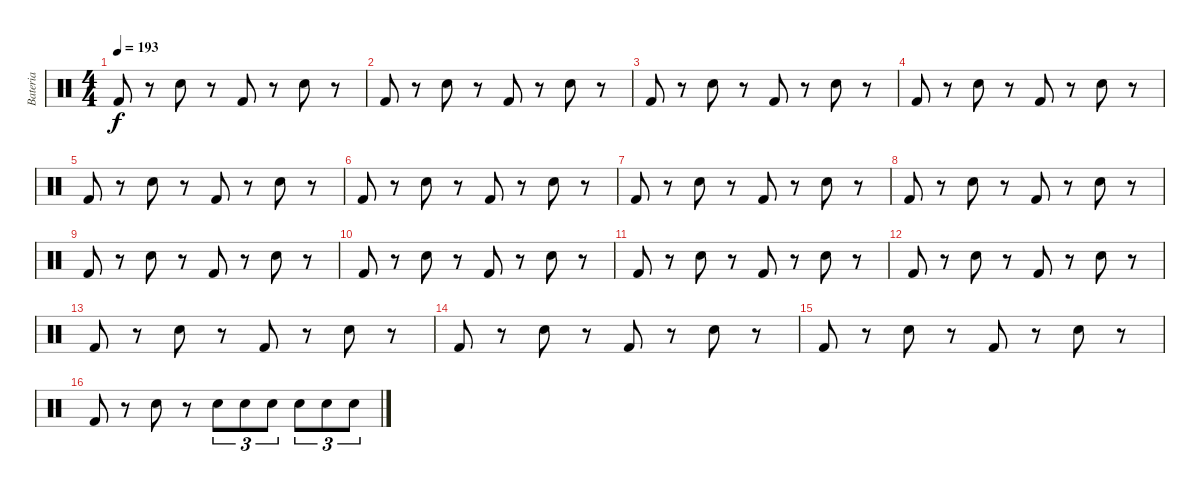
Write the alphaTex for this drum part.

\track ("Bateria" "Bateria") {instrument percussion}
\staff {score}
\articulation defaults
\ts (4 4)
\tempo 193
\clef neutral
\ks c "Kick (hit) 2".8{dy f}
r.8 "Electric Snare (hit)".8 r.8 "Kick (hit) 2".8 r.8 "Electric Snare (hit)".8 r.8 |
"Kick (hit) 2".8 r.8 "Electric Snare (hit)".8 r.8 "Kick (hit) 2".8 r.8 "Electric Snare (hit)".8 r.8 |
"Kick (hit) 2".8 r.8 "Electric Snare (hit)".8 r.8 "Kick (hit) 2".8 r.8 "Electric Snare (hit)".8 r.8 |
"Kick (hit) 2".8 r.8 "Electric Snare (hit)".8 r.8 "Kick (hit) 2".8 r.8 "Electric Snare (hit)".8 r.8 |
"Kick (hit) 2".8 r.8 "Electric Snare (hit)".8 r.8 "Kick (hit) 2".8 r.8 "Electric Snare (hit)".8 r.8 |
"Kick (hit) 2".8 r.8 "Electric Snare (hit)".8 r.8 "Kick (hit) 2".8 r.8 "Electric Snare (hit)".8 r.8 |
"Kick (hit) 2".8 r.8 "Electric Snare (hit)".8 r.8 "Kick (hit) 2".8 r.8 "Electric Snare (hit)".8 r.8 |
"Kick (hit) 2".8 r.8 "Electric Snare (hit)".8 r.8 "Kick (hit) 2".8 r.8 "Electric Snare (hit)".8 r.8 |
"Kick (hit) 2".8 r.8 "Electric Snare (hit)".8 r.8 "Kick (hit) 2".8 r.8 "Electric Snare (hit)".8 r.8 |
"Kick (hit) 2".8 r.8 "Electric Snare (hit)".8 r.8 "Kick (hit) 2".8 r.8 "Electric Snare (hit)".8 r.8 |
"Kick (hit) 2".8 r.8 "Electric Snare (hit)".8 r.8 "Kick (hit) 2".8 r.8 "Electric Snare (hit)".8 r.8 |
"Kick (hit) 2".8 r.8 "Electric Snare (hit)".8 r.8 "Kick (hit) 2".8 r.8 "Electric Snare (hit)".8 r.8 |
"Kick (hit) 2".8 r.8 "Electric Snare (hit)".8 r.8 "Kick (hit) 2".8 r.8 "Electric Snare (hit)".8 r.8 |
"Kick (hit) 2".8 r.8 "Electric Snare (hit)".8 r.8 "Kick (hit) 2".8 r.8 "Electric Snare (hit)".8 r.8 |
"Kick (hit) 2".8 r.8 "Electric Snare (hit)".8 r.8 "Kick (hit) 2".8 r.8 "Electric Snare (hit)".8 r.8 |
"Kick (hit) 2".8 r.8 "Electric Snare (hit)".8 r.8 "Electric Snare (hit)".8{tu (3 2)} "Electric Snare (hit)".8{tu (3 2)} "Electric Snare (hit)".8{tu (3 2)} "Electric Snare (hit)".8{tu (3 2)} "Electric Snare (hit)".8{tu (3 2)} "Electric Snare (hit)".8{tu (3 2)}
